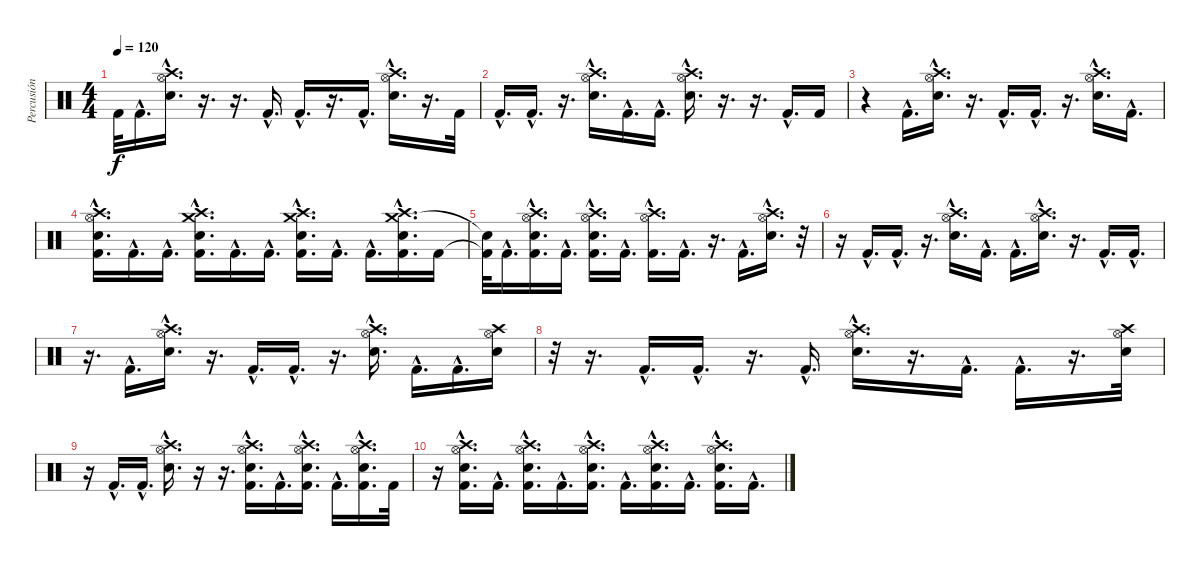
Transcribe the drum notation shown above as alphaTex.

\track ("Percusión" "Percusión") {instrument percussion}
\staff {score}
\articulation defaults
\ts (4 4)
\tempo 120
\clef neutral
\ks c "Kick (hit) 2"{t}.32{dy f} "Kick (hit) 2"{hac}.16{d}
("Electric Snare (hit)"{hac} "Hi-Hat (open)"{hac} "Crash high (hit)"{hac}).16{d} r.16{d} r.16{d} "Kick (hit) 2"{hac}.16{d} "Kick (hit) 2"{hac}.16{d} r.16{d} "Kick (hit) 2"{hac}.16{d} ("Electric Snare (hit)"{hac} "Crash high (hit)"{hac} "Hi-Hat (open)"{hac}).16{d} r.16{d} "Kick (hit) 2".32 |
"Kick (hit) 2"{hac}.16{d} "Kick (hit) 2"{hac}.16{d} r.16{d} ("Electric Snare (hit)"{hac} "Hi-Hat (open)"{hac} "Crash high (hit)"{hac}).16{d} "Kick (hit) 2"{hac}.16{d} "Kick (hit) 2"{hac}.16{d} ("Electric Snare (hit)"{hac} "Hi-Hat (open)"{hac} "Crash high (hit)"{hac}).16{d} r.16{d} r.16{d} "Kick (hit) 2"{hac}.16{d} "Kick (hit) 2".16 |
r.4 "Kick (hit) 2"{hac}.16{d} ("Electric Snare (hit)"{hac} "Crash high (hit)"{hac} "Hi-Hat (open)"{hac}).16{d} r.16{d} "Kick (hit) 2"{hac}.16{d} "Kick (hit) 2"{hac}.16{d} r.16{d} ("Electric Snare (hit)"{hac} "Crash high (hit)"{hac} "Hi-Hat (open)"{hac}).16{d} "Kick (hit) 2"{hac}.16{d} |
("Kick (hit) 2"{hac} "Crash high (hit)"{hac} "Hi-Hat (open)"{hac} "Electric Snare (hit)"{hac}).16{d} "Kick (hit) 2"{hac}.16{d} "Kick (hit) 2"{hac}.16{d} ("Kick (hit) 2"{hac} "Crash high (hit)"{hac} "Crash medium (hit)"{hac} "Electric Snare (hit)"{hac}).16{d} "Kick (hit) 2"{hac}.16{d} "Kick (hit) 2"{hac}.16{d} ("Kick (hit) 2"{hac} "Crash medium (hit)"{hac} "Crash high (hit)"{hac} "Electric Snare (hit)"{hac}).16{d} "Kick (hit) 2"{hac}.16{d} "Kick (hit) 2"{hac}.16{d} ("Kick (hit) 2"{hac} "Crash medium (hit)"{hac} "Crash high (hit)"{hac} "Electric Snare (hit)"{hac}).16{d} "Kick (hit) 2".16 |
("Kick (hit) 2"{t} "Snare (hit)"{t}).32 "Kick (hit) 2"{hac}.16{d} ("Kick (hit) 2"{hac} "Crash high (hit)"{hac} "Hi-Hat (open)"{hac} "Electric Snare (hit)"{hac}).16{d} "Kick (hit) 2"{hac}.16{d} ("Kick (hit) 2"{hac} "Crash high (hit)"{hac} "Hi-Hat (open)"{hac} "Electric Snare (hit)"{hac}).16{d} "Kick (hit) 2"{hac}.16{d} ("Kick (hit) 2"{hac} "Crash high (hit)"{hac} "Hi-Hat (open)"{hac}).16{d} "Kick (hit) 2"{hac}.16{d} r.16{d} "Kick (hit) 2"{hac}.16{d} ("Electric Snare (hit)"{hac} "Crash high (hit)"{hac} "Hi-Hat (open)"{hac}).16{d} r.32 |
r.16 "Kick (hit) 2"{hac}.16{d} "Kick (hit) 2"{hac}.16{d} r.16{d} ("Crash high (hit)"{hac} "Electric Snare (hit)"{hac} "Hi-Hat (open)"{hac}).16{d} "Kick (hit) 2"{hac}.16{d} "Kick (hit) 2"{hac}.16{d} ("Electric Snare (hit)"{hac} "Crash high (hit)"{hac} "Hi-Hat (open)"{hac}).16{d} r.16{d} "Kick (hit) 2"{hac}.16{d} "Kick (hit) 2"{hac}.16{d} |
r.16{d} "Kick (hit) 2"{hac}.16{d} ("Electric Snare (hit)"{hac} "Hi-Hat (open)"{hac} "Crash high (hit)"{hac}).16{d} r.16{d} "Kick (hit) 2"{hac}.16{d} "Kick (hit) 2"{hac}.16{d} r.16{d} ("Electric Snare (hit)"{hac} "Hi-Hat (open)"{hac} "Crash high (hit)"{hac}).16{d} "Kick (hit) 2"{hac}.16{d} "Kick (hit) 2"{hac}.16{d} ("Electric Snare (hit)" "Hi-Hat (open)" "Crash high (hit)").16 |
r.32 r.16{d} "Kick (hit) 2"{hac}.16{d} "Kick (hit) 2"{hac}.16{d} r.16{d} "Kick (hit) 2"{hac}.16{d} ("Electric Snare (hit)"{hac} "Crash high (hit)"{hac} "Hi-Hat (open)"{hac}).16{d} r.16{d} "Kick (hit) 2"{hac}.16{d} "Kick (hit) 2"{hac}.16{d} r.16{d} ("Electric Snare (hit)" "Hi-Hat (open)" "Crash high (hit)").32 |
r.16 "Kick (hit) 2"{hac}.16{d} "Kick (hit) 2"{hac}.16{d} ("Electric Snare (hit)"{hac} "Crash high (hit)"{hac} "Hi-Hat (open)"{hac}).16{d} r.16 r.16{d} ("Kick (hit) 2"{hac} "Electric Snare (hit)"{hac} "Hi-Hat (open)"{hac} "Crash high (hit)"{hac}).16{d} "Kick (hit) 2"{hac}.16{d} ("Kick (hit) 2"{hac} "Electric Snare (hit)"{hac} "Hi-Hat (open)"{hac} "Crash high (hit)"{hac}).16{d} "Kick (hit) 2"{hac}.16{d} ("Kick (hit) 2"{hac} "Electric Snare (hit)"{hac} "Hi-Hat (open)"{hac} "Crash high (hit)"{hac}).16{d} "Kick (hit) 2".32 |
r.16 ("Kick (hit) 2"{hac} "Electric Snare (hit)"{hac} "Hi-Hat (open)"{hac} "Crash high (hit)"{hac}).16{d} "Kick (hit) 2"{hac}.16{d} ("Kick (hit) 2"{hac} "Electric Snare (hit)"{hac} "Hi-Hat (open)"{hac} "Crash high (hit)"{hac}).16{d} "Kick (hit) 2"{hac}.16{d} ("Kick (hit) 2"{hac} "Electric Snare (hit)"{hac} "Hi-Hat (open)"{hac} "Crash high (hit)"{hac}).16{d} "Kick (hit) 2"{hac}.16{d} ("Kick (hit) 2"{hac} "Electric Snare (hit)"{hac} "Hi-Hat (open)"{hac} "Crash high (hit)"{hac}).16{d} "Kick (hit) 2"{hac}.16{d} ("Kick (hit) 2"{hac} "Electric Snare (hit)"{hac} "Hi-Hat (open)"{hac} "Crash high (hit)"{hac}).16{d} "Kick (hit) 2"{hac}.16{d}
